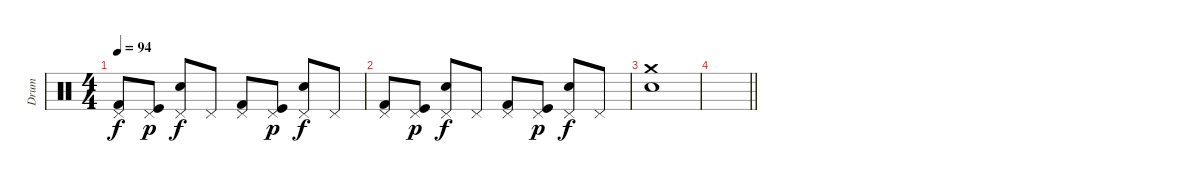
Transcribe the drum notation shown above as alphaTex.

\track ("Drum" "Drum") {instrument percussion}
\staff {score}
\articulation defaults
\ts (4 4)
\tempo 94
\clef neutral
\ks c
("Kick (hit) 2" "Pedal Hi-Hat (hit)").8{dy f} ("Kick (hit)" "Pedal Hi-Hat (hit)").8{dy p} ("Snare (hit) 2" "Pedal Hi-Hat (hit)").8{dy f} "Pedal Hi-Hat (hit)".8 ("Kick (hit) 2" "Pedal Hi-Hat (hit)").8 ("Kick (hit)" "Pedal Hi-Hat (hit)").8{dy p} ("Snare (hit) 2" "Pedal Hi-Hat (hit)").8{dy f} "Pedal Hi-Hat (hit)".8 |
("Kick (hit) 2" "Pedal Hi-Hat (hit)").8 ("Kick (hit)" "Pedal Hi-Hat (hit)").8{dy p} ("Snare (hit) 2" "Pedal Hi-Hat (hit)").8{dy f} "Pedal Hi-Hat (hit)".8 ("Kick (hit) 2" "Pedal Hi-Hat (hit)").8 ("Kick (hit)" "Pedal Hi-Hat (hit)").8{dy p} ("Snare (hit) 2" "Pedal Hi-Hat (hit)").8{dy f} "Pedal Hi-Hat (hit)".8 |
("Crash medium (hit)" "Snare (hit) 2").1 |
\barLineRight lightlight
